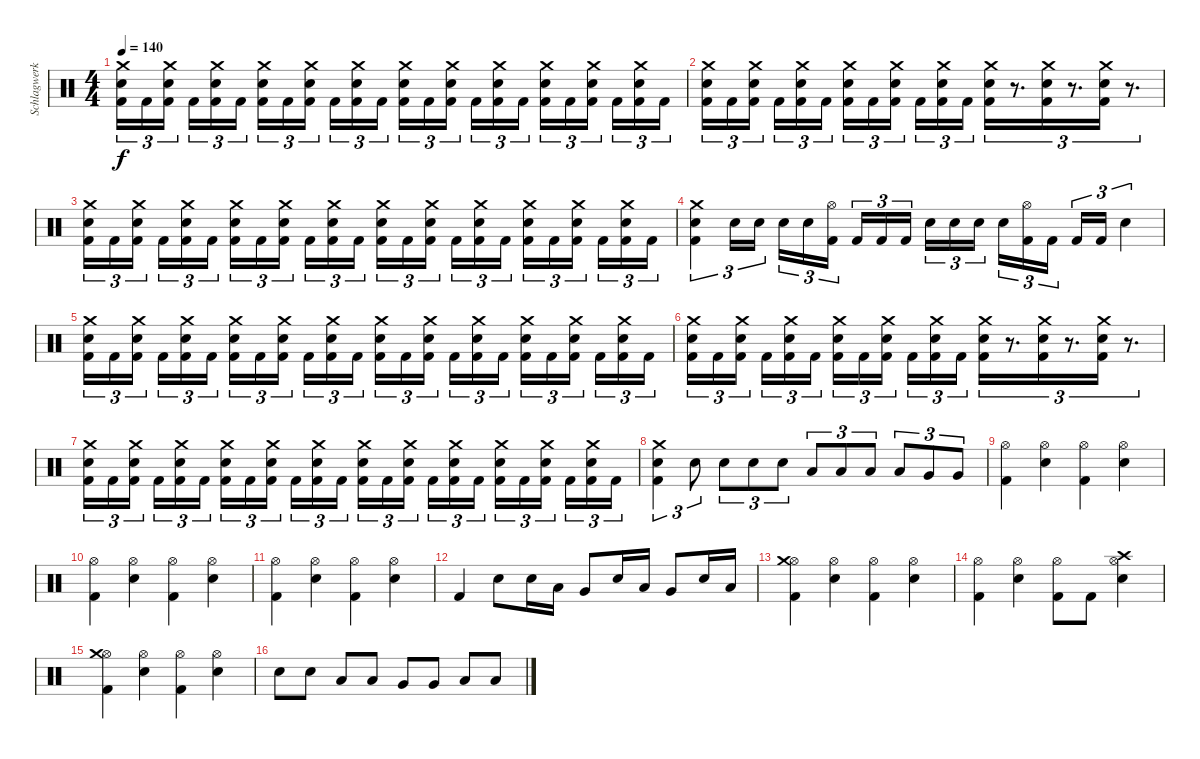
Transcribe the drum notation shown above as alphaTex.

\track ("Schlagwerk" "Schlagwerk") {instrument percussion}
\staff {score}
\articulation defaults
\ts (4 4)
\tempo 140
\clef neutral
\ks c
("Crash medium (hit)" "Snare (hit) 2" "Kick (hit) 2").16{tu (3 2) dy f} "Kick (hit) 2".16{tu (3 2)} ("Crash medium (hit)" "Snare (hit) 2" "Kick (hit) 2").16{tu (3 2)} "Kick (hit) 2".16{tu (3 2)} ("Crash medium (hit)" "Snare (hit) 2" "Kick (hit) 2").16{tu (3 2)} "Kick (hit) 2".16{tu (3 2)} ("Crash medium (hit)" "Snare (hit) 2" "Kick (hit) 2").16{tu (3 2)} "Kick (hit) 2".16{tu (3 2)} ("Crash medium (hit)" "Snare (hit) 2" "Kick (hit) 2").16{tu (3 2)} "Kick (hit) 2".16{tu (3 2)} ("Crash medium (hit)" "Snare (hit) 2" "Kick (hit) 2").16{tu (3 2)} "Kick (hit) 2".16{tu (3 2)} ("Crash medium (hit)" "Snare (hit) 2" "Kick (hit) 2").16{tu (3 2)} "Kick (hit) 2".16{tu (3 2)} ("Crash medium (hit)" "Snare (hit) 2" "Kick (hit) 2").16{tu (3 2)} "Kick (hit) 2".16{tu (3 2)} ("Crash medium (hit)" "Snare (hit) 2" "Kick (hit) 2").16{tu (3 2)} "Kick (hit) 2".16{tu (3 2)} ("Crash medium (hit)" "Snare (hit) 2" "Kick (hit) 2").16{tu (3 2)} "Kick (hit) 2".16{tu (3 2)} ("Crash medium (hit)" "Snare (hit) 2" "Kick (hit) 2").16{tu (3 2)} "Kick (hit) 2".16{tu (3 2)} ("Crash medium (hit)" "Snare (hit) 2" "Kick (hit) 2").16{tu (3 2)} "Kick (hit) 2".16{tu (3 2)} |
("Crash medium (hit)" "Snare (hit) 2" "Kick (hit) 2").16{tu (3 2)} "Kick (hit) 2".16{tu (3 2)} ("Crash medium (hit)" "Snare (hit) 2" "Kick (hit) 2").16{tu (3 2)} "Kick (hit) 2".16{tu (3 2)} ("Crash medium (hit)" "Snare (hit) 2" "Kick (hit) 2").16{tu (3 2)} "Kick (hit) 2".16{tu (3 2)} ("Crash medium (hit)" "Snare (hit) 2" "Kick (hit) 2").16{tu (3 2)} "Kick (hit) 2".16{tu (3 2)} ("Crash medium (hit)" "Snare (hit) 2" "Kick (hit) 2").16{tu (3 2)} "Kick (hit) 2".16{tu (3 2)} ("Crash medium (hit)" "Snare (hit) 2" "Kick (hit) 2").16{tu (3 2)} "Kick (hit) 2".16{tu (3 2)} ("Crash medium (hit)" "Snare (hit) 2" "Kick (hit) 2").16{tu (3 2)} r.8{d tu (3 2)} ("Crash medium (hit)" "Snare (hit) 2" "Kick (hit) 2").16{tu (3 2)} r.8{d tu (3 2)} ("Crash medium (hit)" "Snare (hit) 2" "Kick (hit) 2").16{tu (3 2)} r.8{d tu (3 2)} |
("Crash medium (hit)" "Snare (hit) 2" "Kick (hit) 2").16{tu (3 2)} "Kick (hit) 2".16{tu (3 2)} ("Crash medium (hit)" "Snare (hit) 2" "Kick (hit) 2").16{tu (3 2)} "Kick (hit) 2".16{tu (3 2)} ("Crash medium (hit)" "Snare (hit) 2" "Kick (hit) 2").16{tu (3 2)} "Kick (hit) 2".16{tu (3 2)} ("Crash medium (hit)" "Snare (hit) 2" "Kick (hit) 2").16{tu (3 2)} "Kick (hit) 2".16{tu (3 2)} ("Crash medium (hit)" "Snare (hit) 2" "Kick (hit) 2").16{tu (3 2)} "Kick (hit) 2".16{tu (3 2)} ("Crash medium (hit)" "Snare (hit) 2" "Kick (hit) 2").16{tu (3 2)} "Kick (hit) 2".16{tu (3 2)} ("Crash medium (hit)" "Snare (hit) 2" "Kick (hit) 2").16{tu (3 2)} "Kick (hit) 2".16{tu (3 2)} ("Crash medium (hit)" "Snare (hit) 2" "Kick (hit) 2").16{tu (3 2)} "Kick (hit) 2".16{tu (3 2)} ("Crash medium (hit)" "Snare (hit) 2" "Kick (hit) 2").16{tu (3 2)} "Kick (hit) 2".16{tu (3 2)} ("Crash medium (hit)" "Snare (hit) 2" "Kick (hit) 2").16{tu (3 2)} "Kick (hit) 2".16{tu (3 2)} ("Crash medium (hit)" "Snare (hit) 2" "Kick (hit) 2").16{tu (3 2)} "Kick (hit) 2".16{tu (3 2)} ("Crash medium (hit)" "Snare (hit) 2" "Kick (hit) 2").16{tu (3 2)} "Kick (hit) 2".16{tu (3 2)} |
("Crash medium (hit)" "Snare (hit) 2" "Kick (hit) 2").4{tu (3 2)} "Snare (hit) 2".16{tu (3 2)} "Snare (hit) 2".16{tu (3 2)} "Snare (hit) 2".16{tu (3 2)} "Snare (hit) 2".16{tu (3 2)} ("Hi-Hat (open)" "Kick (hit) 2").16{tu (3 2)} "Kick (hit) 2".16{tu (3 2)} "Kick (hit) 2".16{tu (3 2)} "Kick (hit) 2".16{tu (3 2)} "Snare (hit) 2".16{tu (3 2)} "Snare (hit) 2".16{tu (3 2)} "Snare (hit) 2".16{tu (3 2)} "Snare (hit) 2".16{tu (3 2)} ("Hi-Hat (open)" "Kick (hit) 2").16{tu (3 2)} "Kick (hit) 2".16{tu (3 2)} "Kick (hit) 2".16{tu (3 2)} "Kick (hit) 2".16{tu (3 2)} "Snare (hit) 2".4{tu (3 2)} |
("Crash medium (hit)" "Snare (hit) 2" "Kick (hit) 2").16{tu (3 2)} "Kick (hit) 2".16{tu (3 2)} ("Crash medium (hit)" "Snare (hit) 2" "Kick (hit) 2").16{tu (3 2)} "Kick (hit) 2".16{tu (3 2)} ("Crash medium (hit)" "Snare (hit) 2" "Kick (hit) 2").16{tu (3 2)} "Kick (hit) 2".16{tu (3 2)} ("Crash medium (hit)" "Snare (hit) 2" "Kick (hit) 2").16{tu (3 2)} "Kick (hit) 2".16{tu (3 2)} ("Crash medium (hit)" "Snare (hit) 2" "Kick (hit) 2").16{tu (3 2)} "Kick (hit) 2".16{tu (3 2)} ("Crash medium (hit)" "Snare (hit) 2" "Kick (hit) 2").16{tu (3 2)} "Kick (hit) 2".16{tu (3 2)} ("Crash medium (hit)" "Snare (hit) 2" "Kick (hit) 2").16{tu (3 2)} "Kick (hit) 2".16{tu (3 2)} ("Crash medium (hit)" "Snare (hit) 2" "Kick (hit) 2").16{tu (3 2)} "Kick (hit) 2".16{tu (3 2)} ("Crash medium (hit)" "Snare (hit) 2" "Kick (hit) 2").16{tu (3 2)} "Kick (hit) 2".16{tu (3 2)} ("Crash medium (hit)" "Snare (hit) 2" "Kick (hit) 2").16{tu (3 2)} "Kick (hit) 2".16{tu (3 2)} ("Crash medium (hit)" "Snare (hit) 2" "Kick (hit) 2").16{tu (3 2)} "Kick (hit) 2".16{tu (3 2)} ("Crash medium (hit)" "Snare (hit) 2" "Kick (hit) 2").16{tu (3 2)} "Kick (hit) 2".16{tu (3 2)} |
("Crash medium (hit)" "Snare (hit) 2" "Kick (hit) 2").16{tu (3 2)} "Kick (hit) 2".16{tu (3 2)} ("Crash medium (hit)" "Snare (hit) 2" "Kick (hit) 2").16{tu (3 2)} "Kick (hit) 2".16{tu (3 2)} ("Crash medium (hit)" "Snare (hit) 2" "Kick (hit) 2").16{tu (3 2)} "Kick (hit) 2".16{tu (3 2)} ("Crash medium (hit)" "Snare (hit) 2" "Kick (hit) 2").16{tu (3 2)} "Kick (hit) 2".16{tu (3 2)} ("Crash medium (hit)" "Snare (hit) 2" "Kick (hit) 2").16{tu (3 2)} "Kick (hit) 2".16{tu (3 2)} ("Crash medium (hit)" "Snare (hit) 2" "Kick (hit) 2").16{tu (3 2)} "Kick (hit) 2".16{tu (3 2)} ("Crash medium (hit)" "Snare (hit) 2" "Kick (hit) 2").16{tu (3 2)} r.8{d tu (3 2)} ("Crash medium (hit)" "Snare (hit) 2" "Kick (hit) 2").16{tu (3 2)} r.8{d tu (3 2)} ("Crash medium (hit)" "Snare (hit) 2" "Kick (hit) 2").16{tu (3 2)} r.8{d tu (3 2)} |
("Crash medium (hit)" "Snare (hit) 2" "Kick (hit) 2").16{tu (3 2)} "Kick (hit) 2".16{tu (3 2)} ("Crash medium (hit)" "Snare (hit) 2" "Kick (hit) 2").16{tu (3 2)} "Kick (hit) 2".16{tu (3 2)} ("Crash medium (hit)" "Snare (hit) 2" "Kick (hit) 2").16{tu (3 2)} "Kick (hit) 2".16{tu (3 2)} ("Crash medium (hit)" "Snare (hit) 2" "Kick (hit) 2").16{tu (3 2)} "Kick (hit) 2".16{tu (3 2)} ("Crash medium (hit)" "Snare (hit) 2" "Kick (hit) 2").16{tu (3 2)} "Kick (hit) 2".16{tu (3 2)} ("Crash medium (hit)" "Snare (hit) 2" "Kick (hit) 2").16{tu (3 2)} "Kick (hit) 2".16{tu (3 2)} ("Crash medium (hit)" "Snare (hit) 2" "Kick (hit) 2").16{tu (3 2)} "Kick (hit) 2".16{tu (3 2)} ("Crash medium (hit)" "Snare (hit) 2" "Kick (hit) 2").16{tu (3 2)} "Kick (hit) 2".16{tu (3 2)} ("Crash medium (hit)" "Snare (hit) 2" "Kick (hit) 2").16{tu (3 2)} "Kick (hit) 2".16{tu (3 2)} ("Crash medium (hit)" "Snare (hit) 2" "Kick (hit) 2").16{tu (3 2)} "Kick (hit) 2".16{tu (3 2)} ("Crash medium (hit)" "Snare (hit) 2" "Kick (hit) 2").16{tu (3 2)} "Kick (hit) 2".16{tu (3 2)} ("Crash medium (hit)" "Snare (hit) 2" "Kick (hit) 2").16{tu (3 2)} "Kick (hit) 2".16{tu (3 2)} |
("Crash medium (hit)" "Snare (hit) 2" "Kick (hit) 2").4{tu (3 2)} "Snare (hit) 2".8{tu (3 2)} "Snare (hit) 2".8{tu (3 2)} "Snare (hit) 2".8{tu (3 2)} "Snare (hit) 2".8{tu (3 2)} "Low Tom (hit)".8{tu (3 2)} "Low Tom (hit)".8{tu (3 2)} "Low Tom (hit)".8{tu (3 2)} "Low Tom (hit)".8{tu (3 2)} "Very Low Tom (hit)".8{tu (3 2)} "Very Low Tom (hit)".8{tu (3 2)} |
("Hi-Hat (open)" "Kick (hit) 2").4 ("Hi-Hat (open)" "Snare (hit) 2").4 ("Hi-Hat (open)" "Kick (hit) 2").4 ("Hi-Hat (open)" "Snare (hit) 2").4 |
("Hi-Hat (open)" "Kick (hit) 2").4 ("Hi-Hat (open)" "Snare (hit) 2").4 ("Hi-Hat (open)" "Kick (hit) 2").4 ("Hi-Hat (open)" "Snare (hit) 2").4 |
("Hi-Hat (open)" "Kick (hit) 2").4 ("Hi-Hat (open)" "Snare (hit) 2").4 ("Hi-Hat (open)" "Kick (hit) 2").4 ("Hi-Hat (open)" "Snare (hit) 2").4 |
"Kick (hit) 2".4 "Snare (hit) 2".8 "Snare (hit) 2".16 "Low Tom (hit)".16 "Very Low Tom (hit)".8 "Snare (hit) 2".16 "Low Tom (hit)".16 "Very Low Tom (hit)".8 "Snare (hit) 2".16 "Low Tom (hit)".16 |
("Hi-Hat (open)" "Crash medium (hit)" "Kick (hit) 2").4 ("Hi-Hat (open)" "Snare (hit) 2").4 ("Hi-Hat (open)" "Kick (hit) 2").4 ("Hi-Hat (open)" "Snare (hit) 2").4 |
("Hi-Hat (open)" "Kick (hit) 2").4 ("Hi-Hat (open)" "Snare (hit) 2").4 ("Hi-Hat (open)" "Kick (hit) 2").8 "Kick (hit) 2".8 ("Hi-Hat (open)" "Snare (hit) 2" "Crash high (hit)").4 |
("Hi-Hat (open)" "Crash medium (hit)" "Kick (hit) 2").4 ("Hi-Hat (open)" "Snare (hit) 2").4 ("Hi-Hat (open)" "Kick (hit) 2").4 ("Hi-Hat (open)" "Snare (hit) 2").4 |
"Snare (hit) 2".8 "Snare (hit) 2".8 "Low Tom (hit)".8 "Low Tom (hit)".8 "Very Low Tom (hit)".8 "Very Low Tom (hit)".8 "Low Floor Tom (hit)".8 "Low Floor Tom (hit)".8
